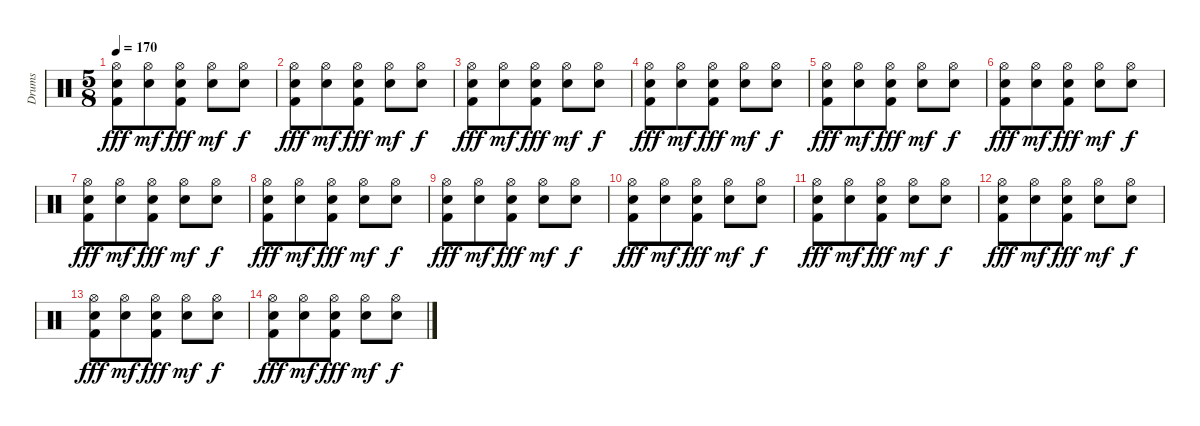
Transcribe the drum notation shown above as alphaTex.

\track ("Drums" "Drums") {instrument percussion}
\staff {score}
\articulation defaults
\ts (5 8)
\tempo 170
\clef neutral
\ks c
("Hi-Hat (open)" "Snare (hit) 2" "Kick (hit) 2").8{dy fff} ("Hi-Hat (open)" "Snare (hit) 2").8{dy mf} ("Hi-Hat (open)" "Snare (hit) 2" "Kick (hit) 2").8{dy fff} ("Hi-Hat (open)" "Snare (hit) 2").8{dy mf} ("Hi-Hat (open)" "Snare (hit) 2").8{dy f} |
("Hi-Hat (open)" "Snare (hit) 2" "Kick (hit) 2").8{dy fff} ("Hi-Hat (open)" "Snare (hit) 2").8{dy mf} ("Hi-Hat (open)" "Snare (hit) 2" "Kick (hit) 2").8{dy fff} ("Hi-Hat (open)" "Snare (hit) 2").8{dy mf} ("Hi-Hat (open)" "Snare (hit) 2").8{dy f} |
("Hi-Hat (open)" "Snare (hit) 2" "Kick (hit) 2").8{dy fff} ("Hi-Hat (open)" "Snare (hit) 2").8{dy mf} ("Hi-Hat (open)" "Snare (hit) 2" "Kick (hit) 2").8{dy fff} ("Hi-Hat (open)" "Snare (hit) 2").8{dy mf} ("Hi-Hat (open)" "Snare (hit) 2").8{dy f} |
("Hi-Hat (open)" "Snare (hit) 2" "Kick (hit) 2").8{dy fff} ("Hi-Hat (open)" "Snare (hit) 2").8{dy mf} ("Hi-Hat (open)" "Snare (hit) 2" "Kick (hit) 2").8{dy fff} ("Hi-Hat (open)" "Snare (hit) 2").8{dy mf} ("Hi-Hat (open)" "Snare (hit) 2").8{dy f} |
("Hi-Hat (open)" "Snare (hit) 2" "Kick (hit) 2").8{dy fff} ("Hi-Hat (open)" "Snare (hit) 2").8{dy mf} ("Hi-Hat (open)" "Snare (hit) 2" "Kick (hit) 2").8{dy fff} ("Hi-Hat (open)" "Snare (hit) 2").8{dy mf} ("Hi-Hat (open)" "Snare (hit) 2").8{dy f} |
("Hi-Hat (open)" "Snare (hit) 2" "Kick (hit) 2").8{dy fff} ("Hi-Hat (open)" "Snare (hit) 2").8{dy mf} ("Hi-Hat (open)" "Snare (hit) 2" "Kick (hit) 2").8{dy fff} ("Hi-Hat (open)" "Snare (hit) 2").8{dy mf} ("Hi-Hat (open)" "Snare (hit) 2").8{dy f} |
("Hi-Hat (open)" "Snare (hit) 2" "Kick (hit) 2").8{dy fff} ("Hi-Hat (open)" "Snare (hit) 2").8{dy mf} ("Hi-Hat (open)" "Snare (hit) 2" "Kick (hit) 2").8{dy fff} ("Hi-Hat (open)" "Snare (hit) 2").8{dy mf} ("Hi-Hat (open)" "Snare (hit) 2").8{dy f} |
("Hi-Hat (open)" "Snare (hit) 2" "Kick (hit) 2").8{dy fff} ("Hi-Hat (open)" "Snare (hit) 2").8{dy mf} ("Hi-Hat (open)" "Snare (hit) 2" "Kick (hit) 2").8{dy fff} ("Hi-Hat (open)" "Snare (hit) 2").8{dy mf} ("Hi-Hat (open)" "Snare (hit) 2").8{dy f} |
("Hi-Hat (open)" "Snare (hit) 2" "Kick (hit) 2").8{dy fff} ("Hi-Hat (open)" "Snare (hit) 2").8{dy mf} ("Hi-Hat (open)" "Snare (hit) 2" "Kick (hit) 2").8{dy fff} ("Hi-Hat (open)" "Snare (hit) 2").8{dy mf} ("Hi-Hat (open)" "Snare (hit) 2").8{dy f} |
("Hi-Hat (open)" "Snare (hit) 2" "Kick (hit) 2").8{dy fff} ("Hi-Hat (open)" "Snare (hit) 2").8{dy mf} ("Hi-Hat (open)" "Snare (hit) 2" "Kick (hit) 2").8{dy fff} ("Hi-Hat (open)" "Snare (hit) 2").8{dy mf} ("Hi-Hat (open)" "Snare (hit) 2").8{dy f} |
("Hi-Hat (open)" "Snare (hit) 2" "Kick (hit) 2").8{dy fff} ("Hi-Hat (open)" "Snare (hit) 2").8{dy mf} ("Hi-Hat (open)" "Snare (hit) 2" "Kick (hit) 2").8{dy fff} ("Hi-Hat (open)" "Snare (hit) 2").8{dy mf} ("Hi-Hat (open)" "Snare (hit) 2").8{dy f} |
("Hi-Hat (open)" "Snare (hit) 2" "Kick (hit) 2").8{dy fff} ("Hi-Hat (open)" "Snare (hit) 2").8{dy mf} ("Hi-Hat (open)" "Snare (hit) 2" "Kick (hit) 2").8{dy fff} ("Hi-Hat (open)" "Snare (hit) 2").8{dy mf} ("Hi-Hat (open)" "Snare (hit) 2").8{dy f} |
("Hi-Hat (open)" "Snare (hit) 2" "Kick (hit) 2").8{dy fff} ("Hi-Hat (open)" "Snare (hit) 2").8{dy mf} ("Hi-Hat (open)" "Snare (hit) 2" "Kick (hit) 2").8{dy fff} ("Hi-Hat (open)" "Snare (hit) 2").8{dy mf} ("Hi-Hat (open)" "Snare (hit) 2").8{dy f} |
("Hi-Hat (open)" "Snare (hit) 2" "Kick (hit) 2").8{dy fff} ("Hi-Hat (open)" "Snare (hit) 2").8{dy mf} ("Hi-Hat (open)" "Snare (hit) 2" "Kick (hit) 2").8{dy fff} ("Hi-Hat (open)" "Snare (hit) 2").8{dy mf} ("Hi-Hat (open)" "Snare (hit) 2").8{dy f}
